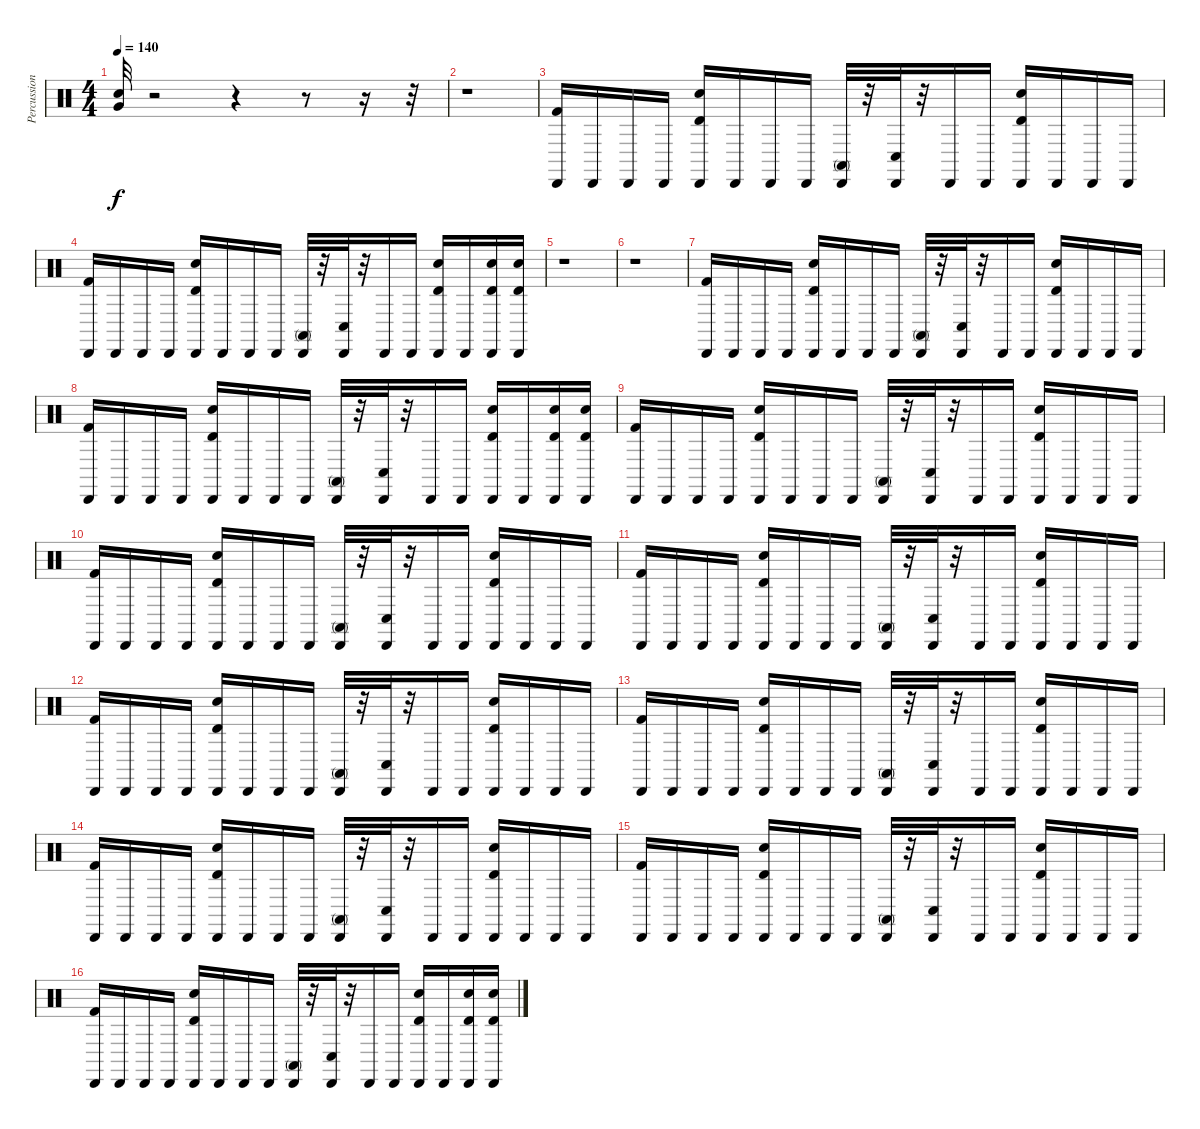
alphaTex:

\track ("Percussions" "Percussion") {instrument percussion}
\staff {score}
\articulation defaults
\ts (4 4)
\tempo 140
\clef neutral
\ks c
("Very Low Tom (hit)" "Hand Clap (hit)").32{dy f} r.2 r.4 r.8 r.16 r.32 |
r.1 |
("Kick (hit) 2" "Cabasa (hit)").16 "Cabasa (hit)".16 "Cabasa (hit)".16 "Cabasa (hit)".16 ("Timbale high (hit)" "Electric Snare (hit)" "Cabasa (hit)").16 "Cabasa (hit)".16 "Cabasa (hit)".16 "Cabasa (hit)".16 ("Conga high (mute)" "Cabasa (hit)").32 r.32 ("Conga low (hit)" "Cabasa (hit)").32 r.32 "Cabasa (hit)".16 "Cabasa (hit)".16 ("Electric Snare (hit)" "Timbale high (hit)" "Cabasa (hit)").16 "Cabasa (hit)".16 "Cabasa (hit)".16 "Cabasa (hit)".16 |
("Kick (hit) 2" "Cabasa (hit)").16 "Cabasa (hit)".16 "Cabasa (hit)".16 "Cabasa (hit)".16 ("Timbale high (hit)" "Electric Snare (hit)" "Cabasa (hit)").16 "Cabasa (hit)".16 "Cabasa (hit)".16 "Cabasa (hit)".16 ("Conga high (mute)" "Cabasa (hit)").32 r.32 ("Conga low (hit)" "Cabasa (hit)").32 r.32 "Cabasa (hit)".16 "Cabasa (hit)".16 ("Electric Snare (hit)" "Timbale high (hit)" "Cabasa (hit)").16 "Cabasa (hit)".16 ("Timbale high (hit)" "Electric Snare (hit)" "Cabasa (hit)").16 ("Timbale high (hit)" "Electric Snare (hit)" "Cabasa (hit)").16 |
r.1 |
r.1 |
("Kick (hit) 2" "Cabasa (hit)").16 "Cabasa (hit)".16 "Cabasa (hit)".16 "Cabasa (hit)".16 ("Timbale high (hit)" "Electric Snare (hit)" "Cabasa (hit)").16 "Cabasa (hit)".16 "Cabasa (hit)".16 "Cabasa (hit)".16 ("Conga high (mute)" "Cabasa (hit)").32 r.32 ("Conga low (hit)" "Cabasa (hit)").32 r.32 "Cabasa (hit)".16 "Cabasa (hit)".16 ("Electric Snare (hit)" "Timbale high (hit)" "Cabasa (hit)").16 "Cabasa (hit)".16 "Cabasa (hit)".16 "Cabasa (hit)".16 |
("Kick (hit) 2" "Cabasa (hit)").16 "Cabasa (hit)".16 "Cabasa (hit)".16 "Cabasa (hit)".16 ("Timbale high (hit)" "Electric Snare (hit)" "Cabasa (hit)").16 "Cabasa (hit)".16 "Cabasa (hit)".16 "Cabasa (hit)".16 ("Conga high (mute)" "Cabasa (hit)").32 r.32 ("Conga low (hit)" "Cabasa (hit)").32 r.32 "Cabasa (hit)".16 "Cabasa (hit)".16 ("Electric Snare (hit)" "Timbale high (hit)" "Cabasa (hit)").16 "Cabasa (hit)".16 ("Timbale high (hit)" "Electric Snare (hit)" "Cabasa (hit)").16 ("Timbale high (hit)" "Electric Snare (hit)" "Cabasa (hit)").16 |
("Kick (hit) 2" "Cabasa (hit)").16 "Cabasa (hit)".16 "Cabasa (hit)".16 "Cabasa (hit)".16 ("Timbale high (hit)" "Electric Snare (hit)" "Cabasa (hit)").16 "Cabasa (hit)".16 "Cabasa (hit)".16 "Cabasa (hit)".16 ("Conga high (mute)" "Cabasa (hit)").32 r.32 ("Conga low (hit)" "Cabasa (hit)").32 r.32 "Cabasa (hit)".16 "Cabasa (hit)".16 ("Electric Snare (hit)" "Timbale high (hit)" "Cabasa (hit)").16 "Cabasa (hit)".16 "Cabasa (hit)".16 "Cabasa (hit)".16 |
("Kick (hit) 2" "Cabasa (hit)").16 "Cabasa (hit)".16 "Cabasa (hit)".16 "Cabasa (hit)".16 ("Timbale high (hit)" "Electric Snare (hit)" "Cabasa (hit)").16 "Cabasa (hit)".16 "Cabasa (hit)".16 "Cabasa (hit)".16 ("Conga high (mute)" "Cabasa (hit)").32 r.32 ("Conga low (hit)" "Cabasa (hit)").32 r.32 "Cabasa (hit)".16 "Cabasa (hit)".16 ("Electric Snare (hit)" "Timbale high (hit)" "Cabasa (hit)").16 "Cabasa (hit)".16 "Cabasa (hit)".16 "Cabasa (hit)".16 |
("Kick (hit) 2" "Cabasa (hit)").16 "Cabasa (hit)".16 "Cabasa (hit)".16 "Cabasa (hit)".16 ("Timbale high (hit)" "Electric Snare (hit)" "Cabasa (hit)").16 "Cabasa (hit)".16 "Cabasa (hit)".16 "Cabasa (hit)".16 ("Conga high (mute)" "Cabasa (hit)").32 r.32 ("Conga low (hit)" "Cabasa (hit)").32 r.32 "Cabasa (hit)".16 "Cabasa (hit)".16 ("Electric Snare (hit)" "Timbale high (hit)" "Cabasa (hit)").16 "Cabasa (hit)".16 "Cabasa (hit)".16 "Cabasa (hit)".16 |
("Kick (hit) 2" "Cabasa (hit)").16 "Cabasa (hit)".16 "Cabasa (hit)".16 "Cabasa (hit)".16 ("Timbale high (hit)" "Electric Snare (hit)" "Cabasa (hit)").16 "Cabasa (hit)".16 "Cabasa (hit)".16 "Cabasa (hit)".16 ("Conga high (mute)" "Cabasa (hit)").32 r.32 ("Conga low (hit)" "Cabasa (hit)").32 r.32 "Cabasa (hit)".16 "Cabasa (hit)".16 ("Electric Snare (hit)" "Timbale high (hit)" "Cabasa (hit)").16 "Cabasa (hit)".16 "Cabasa (hit)".16 "Cabasa (hit)".16 |
("Kick (hit) 2" "Cabasa (hit)").16 "Cabasa (hit)".16 "Cabasa (hit)".16 "Cabasa (hit)".16 ("Timbale high (hit)" "Electric Snare (hit)" "Cabasa (hit)").16 "Cabasa (hit)".16 "Cabasa (hit)".16 "Cabasa (hit)".16 ("Conga high (mute)" "Cabasa (hit)").32 r.32 ("Conga low (hit)" "Cabasa (hit)").32 r.32 "Cabasa (hit)".16 "Cabasa (hit)".16 ("Electric Snare (hit)" "Timbale high (hit)" "Cabasa (hit)").16 "Cabasa (hit)".16 "Cabasa (hit)".16 "Cabasa (hit)".16 |
("Kick (hit) 2" "Cabasa (hit)").16 "Cabasa (hit)".16 "Cabasa (hit)".16 "Cabasa (hit)".16 ("Timbale high (hit)" "Electric Snare (hit)" "Cabasa (hit)").16 "Cabasa (hit)".16 "Cabasa (hit)".16 "Cabasa (hit)".16 ("Conga high (mute)" "Cabasa (hit)").32 r.32 ("Conga low (hit)" "Cabasa (hit)").32 r.32 "Cabasa (hit)".16 "Cabasa (hit)".16 ("Electric Snare (hit)" "Timbale high (hit)" "Cabasa (hit)").16 "Cabasa (hit)".16 "Cabasa (hit)".16 "Cabasa (hit)".16 |
("Kick (hit) 2" "Cabasa (hit)").16 "Cabasa (hit)".16 "Cabasa (hit)".16 "Cabasa (hit)".16 ("Timbale high (hit)" "Electric Snare (hit)" "Cabasa (hit)").16 "Cabasa (hit)".16 "Cabasa (hit)".16 "Cabasa (hit)".16 ("Conga high (mute)" "Cabasa (hit)").32 r.32 ("Conga low (hit)" "Cabasa (hit)").32 r.32 "Cabasa (hit)".16 "Cabasa (hit)".16 ("Electric Snare (hit)" "Timbale high (hit)" "Cabasa (hit)").16 "Cabasa (hit)".16 "Cabasa (hit)".16 "Cabasa (hit)".16 |
("Kick (hit) 2" "Cabasa (hit)").16 "Cabasa (hit)".16 "Cabasa (hit)".16 "Cabasa (hit)".16 ("Timbale high (hit)" "Electric Snare (hit)" "Cabasa (hit)").16 "Cabasa (hit)".16 "Cabasa (hit)".16 "Cabasa (hit)".16 ("Conga high (mute)" "Cabasa (hit)").32 r.32 ("Conga low (hit)" "Cabasa (hit)").32 r.32 "Cabasa (hit)".16 "Cabasa (hit)".16 ("Electric Snare (hit)" "Timbale high (hit)" "Cabasa (hit)").16 "Cabasa (hit)".16 ("Timbale high (hit)" "Electric Snare (hit)" "Cabasa (hit)").16 ("Timbale high (hit)" "Electric Snare (hit)" "Cabasa (hit)").16
